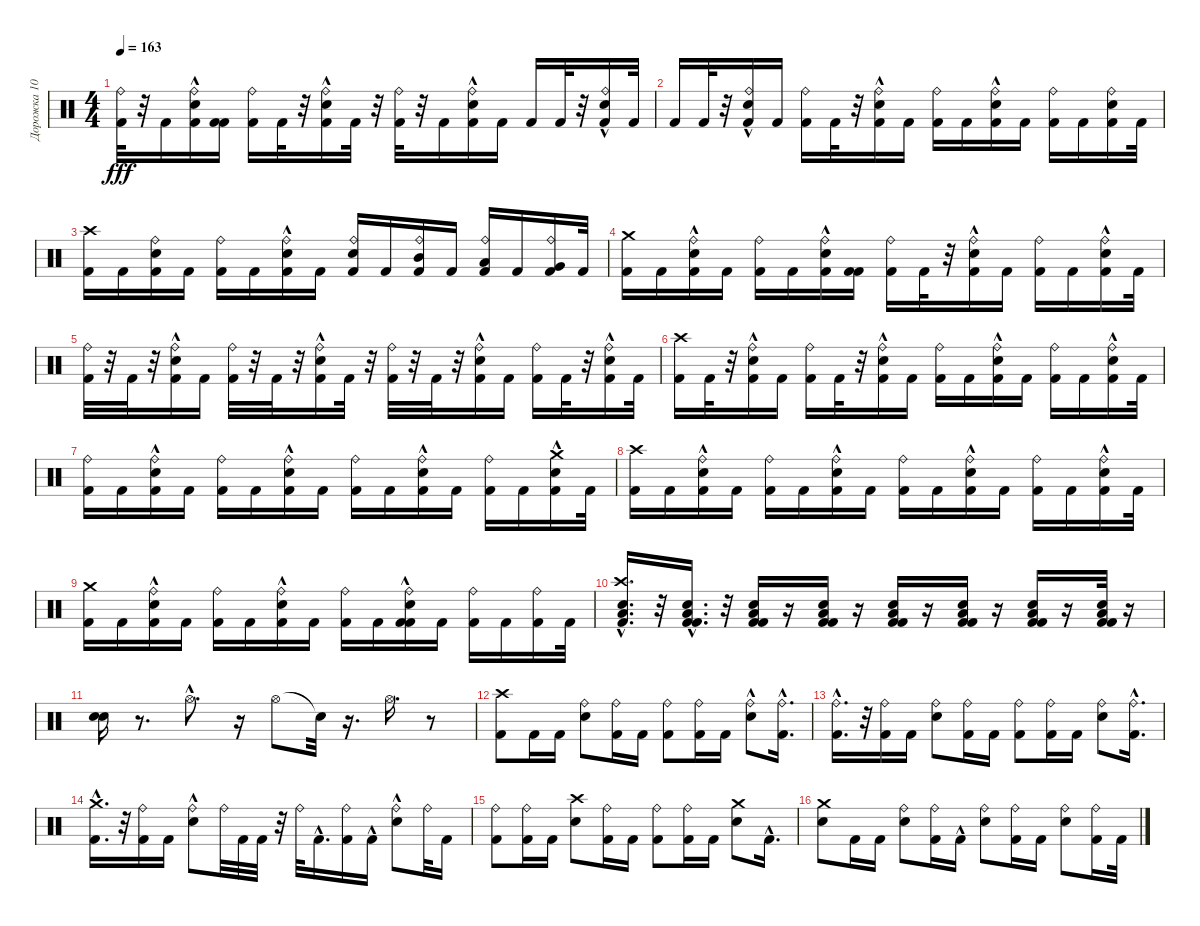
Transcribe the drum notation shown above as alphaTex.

\track ("Дорожка 10" "Дорожка 10") {instrument percussion}
\staff {score}
\articulation defaults
\ts (4 4)
\tempo 163
\clef neutral
\ks c
("Kick (hit) 2" "Ride (bell)").32{dy fff} r.32 "Kick (hit) 2".16 ("Kick (hit) 2" "Electric Snare (hit)"{hac} "Ride (bell)").16 ("Kick (hit) 2" "Kick (hit) 2").16 ("Kick (hit) 2" "Ride (bell)").16 "Kick (hit) 2".32 r.32 ("Kick (hit) 2" "Electric Snare (hit)"{hac} "Ride (bell)").16 "Kick (hit) 2".32 r.32 ("Kick (hit) 2" "Ride (bell)").32 r.32 "Kick (hit) 2".16 ("Kick (hit) 2" "Electric Snare (hit)"{hac} "Ride (bell)").16 "Kick (hit) 2".16 "Kick (hit) 2".16 "Kick (hit) 2".32 r.32 ("Kick (hit) 2" "Electric Snare (hit)"{hac} "Ride (bell)").16 "Kick (hit) 2".32 |
"Kick (hit) 2".16 "Kick (hit) 2".32 r.32 ("Ride (bell)" "Kick (hit) 2" "Electric Snare (hit)"{hac}).16 "Kick (hit) 2".16 ("Kick (hit) 2" "Ride (bell)").16 "Kick (hit) 2".32 r.32 ("Kick (hit) 2" "Electric Snare (hit)"{hac} "Ride (bell)").16 "Kick (hit) 2".16 ("Kick (hit) 2" "Ride (bell)").16 "Kick (hit) 2".16 ("Kick (hit) 2" "Electric Snare (hit)"{hac} "Ride (bell)").16 "Kick (hit) 2".16 ("Kick (hit) 2" "Ride (bell)").16 "Kick (hit) 2".16 ("Kick (hit) 2" "Electric Snare (hit)" "Ride (bell)").16 "Kick (hit) 2".32 |
("Kick (hit) 2" "Crash high (hit)").16 "Kick (hit) 2".16 ("Kick (hit) 2" "Electric Snare (hit)" "Ride (bell)").16 "Kick (hit) 2".16 ("Kick (hit) 2" "Ride (bell)").16 "Kick (hit) 2".16 ("Kick (hit) 2" "Electric Snare (hit)"{hac} "Ride (bell)").16 "Kick (hit) 2".16 ("Kick (hit) 2" "Electric Snare (hit)" "Ride (bell)").16 "Kick (hit) 2".16 ("Kick (hit) 2" "Ride (bell)" "Mid Tom (hit)").16 "Kick (hit) 2".16 ("Kick (hit) 2" "Ride (bell)" "Low Tom (hit)").16 "Kick (hit) 2".16 ("Kick (hit) 2" "Ride (bell)" "Very Low Tom (hit)").16 "Kick (hit) 2".32 |
("Kick (hit) 2" "Crash medium (hit)").16 "Kick (hit) 2".16 ("Kick (hit) 2" "Electric Snare (hit)"{hac} "Ride (bell)").16 "Kick (hit) 2".16 ("Kick (hit) 2" "Ride (bell)").16 "Kick (hit) 2".16 ("Kick (hit) 2" "Electric Snare (hit)"{hac} "Ride (bell)").16 ("Kick (hit) 2" "Kick (hit) 2").16 ("Kick (hit) 2" "Ride (bell)").16 "Kick (hit) 2".32 r.32 ("Kick (hit) 2" "Electric Snare (hit)"{hac} "Ride (bell)").16 "Kick (hit) 2".16 ("Kick (hit) 2" "Ride (bell)").16 "Kick (hit) 2".16 ("Kick (hit) 2" "Electric Snare (hit)"{hac} "Ride (bell)").16 "Kick (hit) 2".32 |
("Kick (hit) 2" "Ride (bell)").32 r.32 "Kick (hit) 2".32 r.32 ("Kick (hit) 2" "Electric Snare (hit)"{hac} "Ride (bell)").16 "Kick (hit) 2".16 ("Kick (hit) 2" "Ride (bell)").32 r.32 "Kick (hit) 2".32 r.32 ("Kick (hit) 2" "Electric Snare (hit)"{hac} "Ride (bell)").16 "Kick (hit) 2".32 r.32 ("Kick (hit) 2" "Ride (bell)").32 r.32 "Kick (hit) 2".32 r.32 ("Kick (hit) 2" "Electric Snare (hit)"{hac} "Ride (bell)").16 "Kick (hit) 2".16 ("Kick (hit) 2" "Ride (bell)").16 "Kick (hit) 2".32 r.32 ("Kick (hit) 2" "Electric Snare (hit)"{hac} "Ride (bell)").16 "Kick (hit) 2".32 |
("Kick (hit) 2" "Crash high (hit)").16 "Kick (hit) 2".32 r.32 ("Kick (hit) 2" "Electric Snare (hit)"{hac} "Ride (bell)").16 "Kick (hit) 2".16 ("Kick (hit) 2" "Ride (bell)").16 "Kick (hit) 2".32 r.32 ("Kick (hit) 2" "Electric Snare (hit)"{hac} "Ride (bell)").16 "Kick (hit) 2".16 ("Kick (hit) 2" "Ride (bell)").16 "Kick (hit) 2".16 ("Kick (hit) 2" "Electric Snare (hit)"{hac} "Ride (bell)").16 "Kick (hit) 2".16 ("Kick (hit) 2" "Ride (bell)").16 "Kick (hit) 2".16 ("Kick (hit) 2" "Electric Snare (hit)"{hac} "Ride (bell)").16 "Kick (hit) 2".32 |
("Kick (hit) 2" "Ride (bell)").16 "Kick (hit) 2".16 ("Kick (hit) 2" "Electric Snare (hit)"{hac} "Ride (bell)").16 "Kick (hit) 2".16 ("Kick (hit) 2" "Ride (bell)").16 "Kick (hit) 2".16 ("Kick (hit) 2" "Electric Snare (hit)"{hac} "Ride (bell)").16 "Kick (hit) 2".16 ("Kick (hit) 2" "Ride (bell)").16 "Kick (hit) 2".16 ("Kick (hit) 2" "Electric Snare (hit)"{hac} "Ride (bell)").16 "Kick (hit) 2".16 ("Kick (hit) 2" "Ride (bell)").16 "Kick (hit) 2".16 ("Kick (hit) 2" "Electric Snare (hit)"{hac} "Crash medium (hit)").16 "Kick (hit) 2".32 |
("Kick (hit) 2" "Crash high (hit)").16 "Kick (hit) 2".16 ("Kick (hit) 2" "Electric Snare (hit)"{hac} "Ride (bell)").16 "Kick (hit) 2".16 ("Kick (hit) 2" "Ride (bell)").16 "Kick (hit) 2".16 ("Kick (hit) 2" "Electric Snare (hit)"{hac} "Ride (bell)").16 "Kick (hit) 2".16 ("Kick (hit) 2" "Ride (bell)").16 "Kick (hit) 2".16 ("Kick (hit) 2" "Electric Snare (hit)"{hac} "Ride (bell)").16 "Kick (hit) 2".16 ("Kick (hit) 2" "Ride (bell)").16 "Kick (hit) 2".16 ("Kick (hit) 2" "Electric Snare (hit)"{hac} "Ride (bell)").16 "Kick (hit) 2".32 |
("Kick (hit) 2" "Crash medium (hit)").16 "Kick (hit) 2".16 ("Kick (hit) 2" "Electric Snare (hit)"{hac} "Ride (bell)").16 "Kick (hit) 2".16 ("Kick (hit) 2" "Ride (bell)").16 "Kick (hit) 2".16 ("Kick (hit) 2" "Electric Snare (hit)"{hac} "Ride (bell)").16 "Kick (hit) 2".16 ("Kick (hit) 2" "Ride (bell)").16 "Kick (hit) 2".16 ("Kick (hit) 2" "Kick (hit) 2" "Electric Snare (hit)"{hac} "Ride (bell)").16 "Kick (hit) 2".16 ("Kick (hit) 2" "Ride (bell)").16 "Kick (hit) 2".16 ("Kick (hit) 2" "Ride (bell)").16 "Kick (hit) 2".32 |
("Crash high (hit)" "Kick (hit) 2" "Electric Snare (hit)"{hac} "Low Floor Tom (hit)").16{d} r.32 ("Electric Snare (hit)"{hac} "Low Floor Tom (hit)" "Kick (hit) 2" "Kick (hit) 2").16{d} r.32 ("Electric Snare (hit)" "Low Floor Tom (hit)" "Kick (hit) 2" "Kick (hit) 2").16 r.16 ("Electric Snare (hit)" "Low Floor Tom (hit)" "Kick (hit) 2" "Kick (hit) 2").16 r.16 ("Electric Snare (hit)" "Low Floor Tom (hit)" "Kick (hit) 2" "Kick (hit) 2").16 r.16 ("Electric Snare (hit)" "Low Floor Tom (hit)" "Kick (hit) 2" "Kick (hit) 2").16 r.16 ("Low Floor Tom (hit)" "Electric Snare (hit)" "Kick (hit) 2" "Kick (hit) 2").16 r.16 ("Electric Snare (hit)" "Low Floor Tom (hit)" "Kick (hit) 2" "Kick (hit) 2").32 r.16 |
("Electric Snare (hit)" "Electric Snare (hit)").16 r.8{d} "Hi-Hat (open)"{hac}.8{d} r.16 "Hi-Hat (open)".8 "Snare (hit)"{t}.32 r.16{d} "Hi-Hat (open)".16{d} r.8 |
("Crash high (hit)" "Kick (hit) 2").8 "Kick (hit) 2".16 "Kick (hit) 2".16 ("Electric Snare (hit)" "Ride (bell)").8 ("Kick (hit) 2" "Ride (bell)").16 "Kick (hit) 2".16 ("Kick (hit) 2" "Ride (bell)").8 ("Kick (hit) 2" "Ride (bell)").16 "Kick (hit) 2".16 ("Electric Snare (hit)"{hac} "Ride (bell)").8 ("Kick (hit) 2"{hac} "Ride (bell)").16{d} |
("Kick (hit) 2"{hac} "Ride (bell)").16{d} r.32 ("Kick (hit) 2" "Ride (bell)").16 "Kick (hit) 2".16 ("Electric Snare (hit)" "Ride (bell)").8 ("Kick (hit) 2" "Ride (bell)").16 "Kick (hit) 2".16 ("Kick (hit) 2" "Ride (bell)").8 ("Kick (hit) 2" "Ride (bell)").16 "Kick (hit) 2".16 ("Electric Snare (hit)" "Ride (bell)").8 ("Kick (hit) 2"{hac} "Ride (bell)").16{d} |
("Kick (hit) 2"{hac} "Crash medium (hit)").16{d} r.32 ("Kick (hit) 2" "Ride (bell)").16 "Kick (hit) 2".16 ("Electric Snare (hit)"{hac} "Ride (bell)").8 "Ride (bell)".32 "Kick (hit) 2".32 "Kick (hit) 2".32 r.32 "Ride (bell)".32 "Kick (hit) 2"{hac}.16{d} ("Kick (hit) 2" "Ride (bell)").16 "Kick (hit) 2"{hac}.16 ("Ride (bell)" "Electric Snare (hit)"{hac}).8 "Ride (bell)".32 "Kick (hit) 2".16 |
("Ride (bell)" "Kick (hit) 2").8 ("Ride (bell)" "Kick (hit) 2").16 "Kick (hit) 2".16 ("Crash high (hit)" "Electric Snare (hit)").8 ("Ride (bell)" "Kick (hit) 2").16 "Kick (hit) 2".16 ("Ride (bell)" "Kick (hit) 2").8 ("Ride (bell)" "Kick (hit) 2").16 "Kick (hit) 2".16 ("Crash medium (hit)" "Electric Snare (hit)").8 "Kick (hit) 2"{hac}.16{d} |
("Crash medium (hit)" "Electric Snare (hit)").8 "Kick (hit) 2".16 "Kick (hit) 2".16 ("Ride (bell)" "Electric Snare (hit)").8 ("Ride (bell)" "Kick (hit) 2").16 "Kick (hit) 2"{hac}.16 ("Ride (bell)" "Electric Snare (hit)").8 ("Ride (bell)" "Kick (hit) 2").16 "Kick (hit) 2".16 ("Ride (bell)" "Electric Snare (hit)").8 ("Ride (bell)" "Kick (hit) 2").16 "Kick (hit) 2".32
